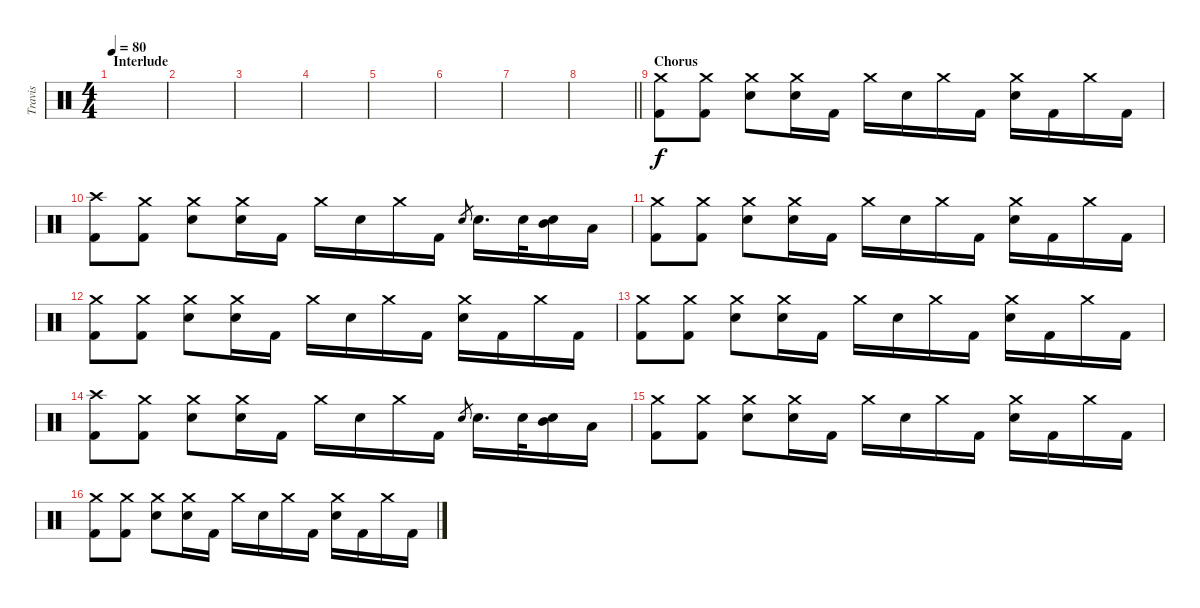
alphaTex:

\track ("Travis" "Travis") {instrument percussion}
\staff {score}
\articulation defaults
\ts (4 4)
\section ("" "Interlude")
\tempo 80
\clef neutral
\ks c
|
|
|
|
|
|
|
\barLineRight lightlight
|
\section ("" "Chorus")
("Crash medium (hit)" "Kick (hit) 2").8 ("Crash medium (hit)" "Kick (hit) 2").8 ("Crash medium (hit)" "Electric Snare (hit)").8 ("Crash medium (hit)" "Electric Snare (hit)").16 "Kick (hit) 2".16 "Crash medium (hit)".16 "Electric Snare (hit)".16 "Crash medium (hit)".16 "Kick (hit) 2".16 ("Crash medium (hit)" "Electric Snare (hit)").16 "Kick (hit) 2".16 "Crash medium (hit)".16 "Kick (hit) 2".16 |
("Crash high (hit)" "Kick (hit) 2").8 ("Crash medium (hit)" "Kick (hit) 2").8 ("Crash medium (hit)" "Electric Snare (hit)").8 ("Crash medium (hit)" "Electric Snare (hit)").16 "Kick (hit) 2".16 "Crash medium (hit)".16 "Electric Snare (hit)".16 "Crash medium (hit)".16 "Kick (hit) 2".16 "Electric Snare (hit)".8{gr} "Electric Snare (hit)".16{d} "Electric Snare (hit)".32 ("Electric Snare (hit)" "Mid Tom (hit)").16 "Low Tom (hit)".16 |
("Crash medium (hit)" "Kick (hit) 2").8 ("Crash medium (hit)" "Kick (hit) 2").8 ("Crash medium (hit)" "Electric Snare (hit)").8 ("Crash medium (hit)" "Electric Snare (hit)").16 "Kick (hit) 2".16 "Crash medium (hit)".16 "Electric Snare (hit)".16 "Crash medium (hit)".16 "Kick (hit) 2".16 ("Crash medium (hit)" "Electric Snare (hit)").16 "Kick (hit) 2".16 "Crash medium (hit)".16 "Kick (hit) 2".16 |
("Crash medium (hit)" "Kick (hit) 2").8 ("Crash medium (hit)" "Kick (hit) 2").8 ("Crash medium (hit)" "Electric Snare (hit)").8 ("Crash medium (hit)" "Electric Snare (hit)").16 "Kick (hit) 2".16 "Crash medium (hit)".16 "Electric Snare (hit)".16 "Crash medium (hit)".16 "Kick (hit) 2".16 ("Crash medium (hit)" "Electric Snare (hit)").16 "Kick (hit) 2".16 "Crash medium (hit)".16 "Kick (hit) 2".16 |
("Crash medium (hit)" "Kick (hit) 2").8 ("Crash medium (hit)" "Kick (hit) 2").8 ("Crash medium (hit)" "Electric Snare (hit)").8 ("Crash medium (hit)" "Electric Snare (hit)").16 "Kick (hit) 2".16 "Crash medium (hit)".16 "Electric Snare (hit)".16 "Crash medium (hit)".16 "Kick (hit) 2".16 ("Crash medium (hit)" "Electric Snare (hit)").16 "Kick (hit) 2".16 "Crash medium (hit)".16 "Kick (hit) 2".16 |
("Crash high (hit)" "Kick (hit) 2").8 ("Crash medium (hit)" "Kick (hit) 2").8 ("Crash medium (hit)" "Electric Snare (hit)").8 ("Crash medium (hit)" "Electric Snare (hit)").16 "Kick (hit) 2".16 "Crash medium (hit)".16 "Electric Snare (hit)".16 "Crash medium (hit)".16 "Kick (hit) 2".16 "Electric Snare (hit)".8{gr} "Electric Snare (hit)".16{d} "Electric Snare (hit)".32 ("Electric Snare (hit)" "Mid Tom (hit)").16 "Low Tom (hit)".16 |
("Crash medium (hit)" "Kick (hit) 2").8 ("Crash medium (hit)" "Kick (hit) 2").8 ("Crash medium (hit)" "Electric Snare (hit)").8 ("Crash medium (hit)" "Electric Snare (hit)").16 "Kick (hit) 2".16 "Crash medium (hit)".16 "Electric Snare (hit)".16 "Crash medium (hit)".16 "Kick (hit) 2".16 ("Crash medium (hit)" "Electric Snare (hit)").16 "Kick (hit) 2".16 "Crash medium (hit)".16 "Kick (hit) 2".16 |
("Crash medium (hit)" "Kick (hit) 2").8 ("Crash medium (hit)" "Kick (hit) 2").8 ("Crash medium (hit)" "Electric Snare (hit)").8 ("Crash medium (hit)" "Electric Snare (hit)").16 "Kick (hit) 2".16 "Crash medium (hit)".16 "Electric Snare (hit)".16 "Crash medium (hit)".16 "Kick (hit) 2".16 ("Crash medium (hit)" "Electric Snare (hit)").16 "Kick (hit) 2".16 "Crash medium (hit)".16 "Kick (hit) 2".16
